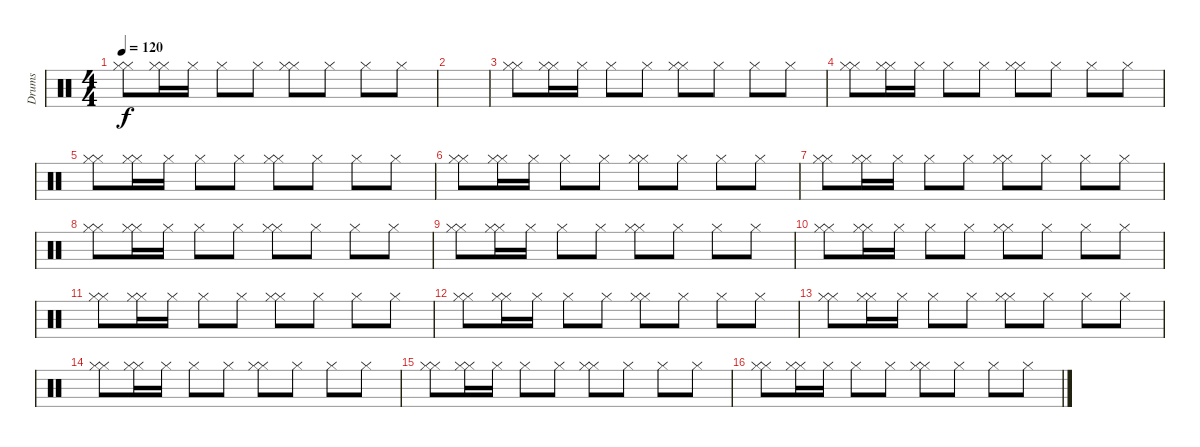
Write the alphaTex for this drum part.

\track ("Drums" "Drums") {instrument percussion}
\staff {score}
\articulation defaults
\ts (4 4)
\tempo 120
\clef neutral
\ks c
("Hi-Hat (closed)" "Hi-Hat (closed)").8{dy f} ("Hi-Hat (closed)" "Hi-Hat (closed)").16 "Hi-Hat (closed)".16 "Hi-Hat (closed)".8 "Hi-Hat (closed)".8 ("Hi-Hat (closed)" "Hi-Hat (closed)").8 "Hi-Hat (closed)".8 "Hi-Hat (closed)".8 "Hi-Hat (closed)".8 |
|
("Hi-Hat (closed)" "Hi-Hat (closed)").8 ("Hi-Hat (closed)" "Hi-Hat (closed)").16 "Hi-Hat (closed)".16 "Hi-Hat (closed)".8 "Hi-Hat (closed)".8 ("Hi-Hat (closed)" "Hi-Hat (closed)").8 "Hi-Hat (closed)".8 "Hi-Hat (closed)".8 "Hi-Hat (closed)".8 |
("Hi-Hat (closed)" "Hi-Hat (closed)").8 ("Hi-Hat (closed)" "Hi-Hat (closed)").16 "Hi-Hat (closed)".16 "Hi-Hat (closed)".8 "Hi-Hat (closed)".8 ("Hi-Hat (closed)" "Hi-Hat (closed)").8 "Hi-Hat (closed)".8 "Hi-Hat (closed)".8 "Hi-Hat (closed)".8 |
("Hi-Hat (closed)" "Hi-Hat (closed)").8 ("Hi-Hat (closed)" "Hi-Hat (closed)").16 "Hi-Hat (closed)".16 "Hi-Hat (closed)".8 "Hi-Hat (closed)".8 ("Hi-Hat (closed)" "Hi-Hat (closed)").8 "Hi-Hat (closed)".8 "Hi-Hat (closed)".8 "Hi-Hat (closed)".8 |
("Hi-Hat (closed)" "Hi-Hat (closed)").8 ("Hi-Hat (closed)" "Hi-Hat (closed)").16 "Hi-Hat (closed)".16 "Hi-Hat (closed)".8 "Hi-Hat (closed)".8 ("Hi-Hat (closed)" "Hi-Hat (closed)").8 "Hi-Hat (closed)".8 "Hi-Hat (closed)".8 "Hi-Hat (closed)".8 |
("Hi-Hat (closed)" "Hi-Hat (closed)").8 ("Hi-Hat (closed)" "Hi-Hat (closed)").16 "Hi-Hat (closed)".16 "Hi-Hat (closed)".8 "Hi-Hat (closed)".8 ("Hi-Hat (closed)" "Hi-Hat (closed)").8 "Hi-Hat (closed)".8 "Hi-Hat (closed)".8 "Hi-Hat (closed)".8 |
("Hi-Hat (closed)" "Hi-Hat (closed)").8 ("Hi-Hat (closed)" "Hi-Hat (closed)").16 "Hi-Hat (closed)".16 "Hi-Hat (closed)".8 "Hi-Hat (closed)".8 ("Hi-Hat (closed)" "Hi-Hat (closed)").8 "Hi-Hat (closed)".8 "Hi-Hat (closed)".8 "Hi-Hat (closed)".8 |
("Hi-Hat (closed)" "Hi-Hat (closed)").8 ("Hi-Hat (closed)" "Hi-Hat (closed)").16 "Hi-Hat (closed)".16 "Hi-Hat (closed)".8 "Hi-Hat (closed)".8 ("Hi-Hat (closed)" "Hi-Hat (closed)").8 "Hi-Hat (closed)".8 "Hi-Hat (closed)".8 "Hi-Hat (closed)".8 |
("Hi-Hat (closed)" "Hi-Hat (closed)").8 ("Hi-Hat (closed)" "Hi-Hat (closed)").16 "Hi-Hat (closed)".16 "Hi-Hat (closed)".8 "Hi-Hat (closed)".8 ("Hi-Hat (closed)" "Hi-Hat (closed)").8 "Hi-Hat (closed)".8 "Hi-Hat (closed)".8 "Hi-Hat (closed)".8 |
("Hi-Hat (closed)" "Hi-Hat (closed)").8 ("Hi-Hat (closed)" "Hi-Hat (closed)").16 "Hi-Hat (closed)".16 "Hi-Hat (closed)".8 "Hi-Hat (closed)".8 ("Hi-Hat (closed)" "Hi-Hat (closed)").8 "Hi-Hat (closed)".8 "Hi-Hat (closed)".8 "Hi-Hat (closed)".8 |
("Hi-Hat (closed)" "Hi-Hat (closed)").8 ("Hi-Hat (closed)" "Hi-Hat (closed)").16 "Hi-Hat (closed)".16 "Hi-Hat (closed)".8 "Hi-Hat (closed)".8 ("Hi-Hat (closed)" "Hi-Hat (closed)").8 "Hi-Hat (closed)".8 "Hi-Hat (closed)".8 "Hi-Hat (closed)".8 |
("Hi-Hat (closed)" "Hi-Hat (closed)").8 ("Hi-Hat (closed)" "Hi-Hat (closed)").16 "Hi-Hat (closed)".16 "Hi-Hat (closed)".8 "Hi-Hat (closed)".8 ("Hi-Hat (closed)" "Hi-Hat (closed)").8 "Hi-Hat (closed)".8 "Hi-Hat (closed)".8 "Hi-Hat (closed)".8 |
("Hi-Hat (closed)" "Hi-Hat (closed)").8 ("Hi-Hat (closed)" "Hi-Hat (closed)").16 "Hi-Hat (closed)".16 "Hi-Hat (closed)".8 "Hi-Hat (closed)".8 ("Hi-Hat (closed)" "Hi-Hat (closed)").8 "Hi-Hat (closed)".8 "Hi-Hat (closed)".8 "Hi-Hat (closed)".8 |
("Hi-Hat (closed)" "Hi-Hat (closed)").8 ("Hi-Hat (closed)" "Hi-Hat (closed)").16 "Hi-Hat (closed)".16 "Hi-Hat (closed)".8 "Hi-Hat (closed)".8 ("Hi-Hat (closed)" "Hi-Hat (closed)").8 "Hi-Hat (closed)".8 "Hi-Hat (closed)".8 "Hi-Hat (closed)".8 |
("Hi-Hat (closed)" "Hi-Hat (closed)").8 ("Hi-Hat (closed)" "Hi-Hat (closed)").16 "Hi-Hat (closed)".16 "Hi-Hat (closed)".8 "Hi-Hat (closed)".8 ("Hi-Hat (closed)" "Hi-Hat (closed)").8 "Hi-Hat (closed)".8 "Hi-Hat (closed)".8 "Hi-Hat (closed)".8
